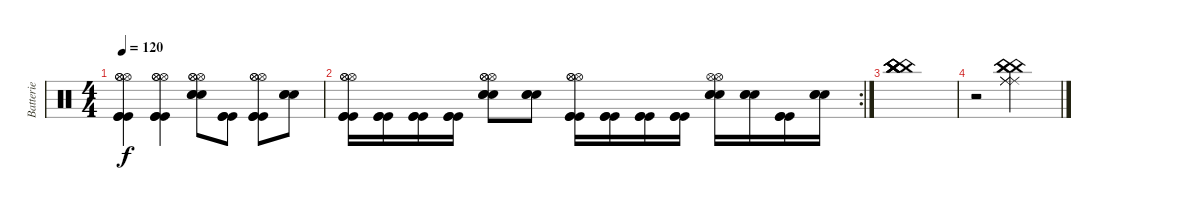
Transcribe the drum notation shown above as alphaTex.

\track ("Batterie" "Batterie") {instrument percussion}
\staff {score}
\articulation defaults
\ts (4 4)
\tempo 120
\clef neutral
\ks c
("Hi-Hat (open)" "Hi-Hat (open)" "Hi-Hat (open)" "Kick (hit)" "Kick (hit)" "Kick (hit)").4{dy f} ("Hi-Hat (open)" "Hi-Hat (open)" "Hi-Hat (open)" "Kick (hit)" "Kick (hit)" "Kick (hit)").4 ("Hi-Hat (open)" "Hi-Hat (open)" "Hi-Hat (open)" "Snare (hit) 2" "Snare (hit) 2" "Snare (hit) 2").8 ("Kick (hit)" "Kick (hit)" "Kick (hit)").8 ("Hi-Hat (open)" "Hi-Hat (open)" "Hi-Hat (open)" "Kick (hit)" "Kick (hit)" "Kick (hit)").8 ("Snare (hit) 2" "Snare (hit) 2" "Snare (hit) 2").8 |
\rc 2
("Hi-Hat (open)" "Hi-Hat (open)" "Hi-Hat (open)" "Kick (hit)" "Kick (hit)" "Kick (hit)").16 ("Kick (hit)" "Kick (hit)" "Kick (hit)").16 ("Kick (hit)" "Kick (hit)" "Kick (hit)").16 ("Kick (hit)" "Kick (hit)" "Kick (hit)").16 ("Hi-Hat (open)" "Snare (hit) 2" "Snare (hit) 2" "Snare (hit) 2" "Hi-Hat (open)" "Hi-Hat (open)").8 ("Snare (hit) 2" "Snare (hit) 2" "Snare (hit) 2").8 ("Hi-Hat (open)" "Hi-Hat (open)" "Hi-Hat (open)" "Kick (hit)" "Kick (hit)" "Kick (hit)").16 ("Kick (hit)" "Kick (hit)" "Kick (hit)").16 ("Kick (hit)" "Kick (hit)" "Kick (hit)").16 ("Kick (hit)" "Kick (hit)" "Kick (hit)").16 ("Hi-Hat (open)" "Hi-Hat (open)" "Snare (hit) 2" "Snare (hit) 2" "Snare (hit) 2").16 ("Snare (hit) 2" "Snare (hit) 2" "Snare (hit) 2").16 ("Kick (hit)" "Kick (hit)" "Kick (hit)").16 ("Snare (hit) 2" "Snare (hit) 2" "Snare (hit) 2").16 |
("China (hit)" "China (hit)" "China (hit)" "China (hit)" "China (hit)" "China (hit)").1 |
r.2 ("Ride (middle)" "Ride (middle)" "Ride (middle)" "China (hit)" "China (hit)" "China (hit)").2
